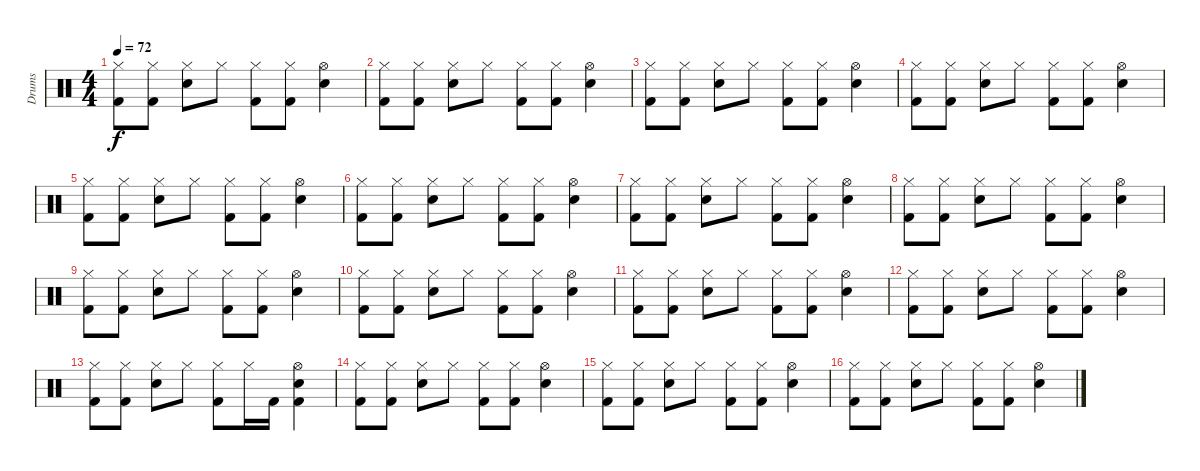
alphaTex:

\track ("Drums" "Drums") {instrument percussion}
\staff {score}
\articulation defaults
\ts (4 4)
\tempo 72
\clef neutral
\ks c
("Hi-Hat (closed)" "Kick (hit) 2").8{dy f} ("Hi-Hat (closed)" "Kick (hit) 2").8 ("Hi-Hat (closed)" "Electric Snare (hit)").8 "Hi-Hat (closed)".8 ("Hi-Hat (closed)" "Kick (hit) 2").8 ("Hi-Hat (closed)" "Kick (hit) 2").8 ("Hi-Hat (open)" "Electric Snare (hit)").4 |
("Hi-Hat (closed)" "Kick (hit) 2").8 ("Hi-Hat (closed)" "Kick (hit) 2").8 ("Hi-Hat (closed)" "Electric Snare (hit)").8 "Hi-Hat (closed)".8 ("Hi-Hat (closed)" "Kick (hit) 2").8 ("Hi-Hat (closed)" "Kick (hit) 2").8 ("Hi-Hat (open)" "Electric Snare (hit)").4 |
("Hi-Hat (closed)" "Kick (hit) 2").8 ("Hi-Hat (closed)" "Kick (hit) 2").8 ("Hi-Hat (closed)" "Electric Snare (hit)").8 "Hi-Hat (closed)".8 ("Hi-Hat (closed)" "Kick (hit) 2").8 ("Hi-Hat (closed)" "Kick (hit) 2").8 ("Hi-Hat (open)" "Electric Snare (hit)").4 |
("Hi-Hat (closed)" "Kick (hit) 2").8 ("Hi-Hat (closed)" "Kick (hit) 2").8 ("Hi-Hat (closed)" "Electric Snare (hit)").8 "Hi-Hat (closed)".8 ("Hi-Hat (closed)" "Kick (hit) 2").8 ("Hi-Hat (closed)" "Kick (hit) 2").8 ("Hi-Hat (open)" "Electric Snare (hit)").4 |
("Hi-Hat (closed)" "Kick (hit) 2").8 ("Hi-Hat (closed)" "Kick (hit) 2").8 ("Hi-Hat (closed)" "Electric Snare (hit)").8 "Hi-Hat (closed)".8 ("Hi-Hat (closed)" "Kick (hit) 2").8 ("Hi-Hat (closed)" "Kick (hit) 2").8 ("Hi-Hat (open)" "Electric Snare (hit)").4 |
("Hi-Hat (closed)" "Kick (hit) 2").8 ("Hi-Hat (closed)" "Kick (hit) 2").8 ("Hi-Hat (closed)" "Electric Snare (hit)").8 "Hi-Hat (closed)".8 ("Hi-Hat (closed)" "Kick (hit) 2").8 ("Hi-Hat (closed)" "Kick (hit) 2").8 ("Hi-Hat (open)" "Electric Snare (hit)").4 |
("Hi-Hat (closed)" "Kick (hit) 2").8 ("Hi-Hat (closed)" "Kick (hit) 2").8 ("Hi-Hat (closed)" "Electric Snare (hit)").8 "Hi-Hat (closed)".8 ("Hi-Hat (closed)" "Kick (hit) 2").8 ("Hi-Hat (closed)" "Kick (hit) 2").8 ("Hi-Hat (open)" "Electric Snare (hit)").4 |
("Hi-Hat (closed)" "Kick (hit) 2").8 ("Hi-Hat (closed)" "Kick (hit) 2").8 ("Hi-Hat (closed)" "Electric Snare (hit)").8 "Hi-Hat (closed)".8 ("Hi-Hat (closed)" "Kick (hit) 2").8 ("Hi-Hat (closed)" "Kick (hit) 2").8 ("Hi-Hat (open)" "Electric Snare (hit)").4 |
("Hi-Hat (closed)" "Kick (hit) 2").8 ("Hi-Hat (closed)" "Kick (hit) 2").8 ("Hi-Hat (closed)" "Electric Snare (hit)").8 "Hi-Hat (closed)".8 ("Hi-Hat (closed)" "Kick (hit) 2").8 ("Hi-Hat (closed)" "Kick (hit) 2").8 ("Hi-Hat (open)" "Electric Snare (hit)").4 |
("Hi-Hat (closed)" "Kick (hit) 2").8 ("Hi-Hat (closed)" "Kick (hit) 2").8 ("Hi-Hat (closed)" "Electric Snare (hit)").8 "Hi-Hat (closed)".8 ("Hi-Hat (closed)" "Kick (hit) 2").8 ("Hi-Hat (closed)" "Kick (hit) 2").8 ("Hi-Hat (open)" "Electric Snare (hit)").4 |
("Hi-Hat (closed)" "Kick (hit) 2").8 ("Hi-Hat (closed)" "Kick (hit) 2").8 ("Hi-Hat (closed)" "Electric Snare (hit)").8 "Hi-Hat (closed)".8 ("Hi-Hat (closed)" "Kick (hit) 2").8 ("Hi-Hat (closed)" "Kick (hit) 2").8 ("Hi-Hat (open)" "Electric Snare (hit)").4 |
("Hi-Hat (closed)" "Kick (hit) 2").8 ("Hi-Hat (closed)" "Kick (hit) 2").8 ("Hi-Hat (closed)" "Electric Snare (hit)").8 "Hi-Hat (closed)".8 ("Hi-Hat (closed)" "Kick (hit) 2").8 ("Hi-Hat (closed)" "Kick (hit) 2").8 ("Hi-Hat (open)" "Electric Snare (hit)").4 |
("Hi-Hat (closed)" "Kick (hit) 2").8 ("Hi-Hat (closed)" "Kick (hit) 2").8 ("Hi-Hat (closed)" "Electric Snare (hit)").8 "Hi-Hat (closed)".8 ("Hi-Hat (closed)" "Kick (hit) 2").8 "Hi-Hat (closed)".16 "Kick (hit) 2".16 ("Hi-Hat (open)" "Electric Snare (hit)" "Kick (hit) 2").4 |
("Hi-Hat (closed)" "Kick (hit) 2").8 ("Hi-Hat (closed)" "Kick (hit) 2").8 ("Hi-Hat (closed)" "Electric Snare (hit)").8 "Hi-Hat (closed)".8 ("Hi-Hat (closed)" "Kick (hit) 2").8 ("Hi-Hat (closed)" "Kick (hit) 2").8 ("Hi-Hat (open)" "Electric Snare (hit)").4 |
("Hi-Hat (closed)" "Kick (hit) 2").8 ("Hi-Hat (closed)" "Kick (hit) 2").8 ("Hi-Hat (closed)" "Electric Snare (hit)").8 "Hi-Hat (closed)".8 ("Hi-Hat (closed)" "Kick (hit) 2").8 ("Hi-Hat (closed)" "Kick (hit) 2").8 ("Hi-Hat (open)" "Electric Snare (hit)").4 |
("Hi-Hat (closed)" "Kick (hit) 2").8 ("Hi-Hat (closed)" "Kick (hit) 2").8 ("Hi-Hat (closed)" "Electric Snare (hit)").8 "Hi-Hat (closed)".8 ("Hi-Hat (closed)" "Kick (hit) 2").8 ("Hi-Hat (closed)" "Kick (hit) 2").8 ("Hi-Hat (open)" "Electric Snare (hit)").4
